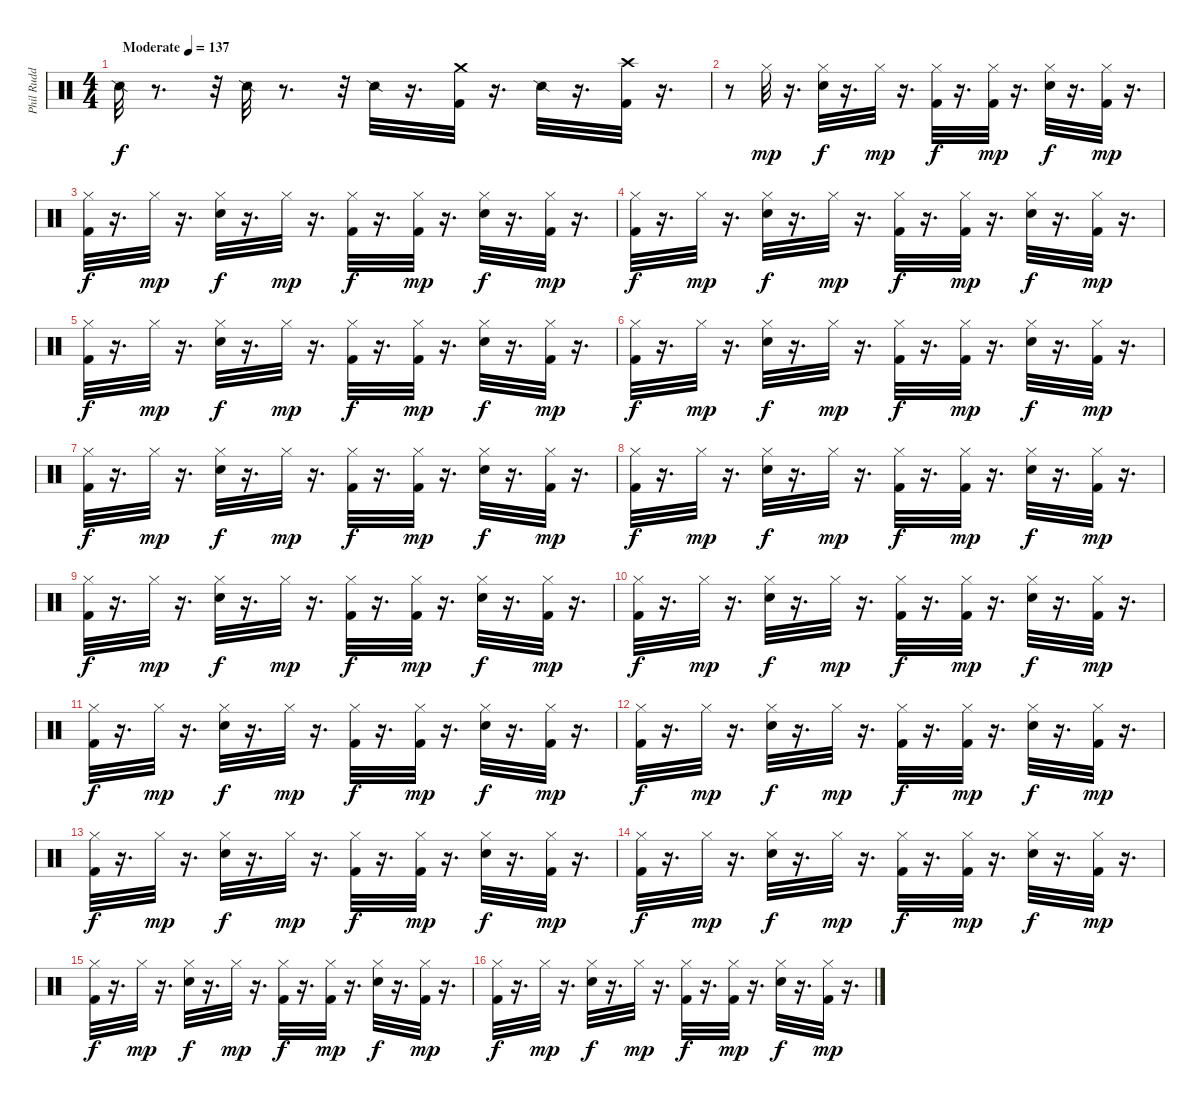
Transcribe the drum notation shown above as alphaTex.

\track ("Phil Rudd" "Phil Rudd") {instrument percussion}
\staff
\articulation defaults
\ts (4 4)
\tempo (137 "Moderate")
\clef neutral
\ks c "Snare (side stick) 2".32{dy f}
r.8{d} r.32 "Snare (side stick) 2".32 r.8{d} r.32 "Snare (side stick) 2".32 r.16{d} ("Crash medium (hit)" "Kick (hit) 2").32 r.16{d} "Snare (side stick) 2".32 r.16{d} ("Crash high (hit)" "Kick (hit) 2").32 r.16{d} |
r.8 "Hi-Hat (closed)".32{dy mp} r.16{d} ("Hi-Hat (closed)" "Electric Snare (hit)").32{dy f} r.16{d} "Hi-Hat (closed)".32{dy mp} r.16{d} ("Hi-Hat (closed)" "Kick (hit) 2").32{dy f} r.16{d} ("Hi-Hat (closed)" "Kick (hit) 2").32{dy mp} r.16{d} ("Hi-Hat (closed)" "Electric Snare (hit)").32{dy f} r.16{d} ("Hi-Hat (closed)" "Kick (hit) 2").32{dy mp} r.16{d} |
("Hi-Hat (closed)" "Kick (hit) 2").32{dy f} r.16{d} "Hi-Hat (closed)".32{dy mp} r.16{d} ("Hi-Hat (closed)" "Electric Snare (hit)").32{dy f} r.16{d} "Hi-Hat (closed)".32{dy mp} r.16{d} ("Hi-Hat (closed)" "Kick (hit) 2").32{dy f} r.16{d} ("Hi-Hat (closed)" "Kick (hit) 2").32{dy mp} r.16{d} ("Hi-Hat (closed)" "Electric Snare (hit)").32{dy f} r.16{d} ("Hi-Hat (closed)" "Kick (hit) 2").32{dy mp} r.16{d} |
("Hi-Hat (closed)" "Kick (hit) 2").32{dy f} r.16{d} "Hi-Hat (closed)".32{dy mp} r.16{d} ("Hi-Hat (closed)" "Electric Snare (hit)").32{dy f} r.16{d} "Hi-Hat (closed)".32{dy mp} r.16{d} ("Hi-Hat (closed)" "Kick (hit) 2").32{dy f} r.16{d} ("Hi-Hat (closed)" "Kick (hit) 2").32{dy mp} r.16{d} ("Hi-Hat (closed)" "Electric Snare (hit)").32{dy f} r.16{d} ("Hi-Hat (closed)" "Kick (hit) 2").32{dy mp} r.16{d} |
("Hi-Hat (closed)" "Kick (hit) 2").32{dy f} r.16{d} "Hi-Hat (closed)".32{dy mp} r.16{d} ("Hi-Hat (closed)" "Electric Snare (hit)").32{dy f} r.16{d} "Hi-Hat (closed)".32{dy mp} r.16{d} ("Hi-Hat (closed)" "Kick (hit) 2").32{dy f} r.16{d} ("Hi-Hat (closed)" "Kick (hit) 2").32{dy mp} r.16{d} ("Hi-Hat (closed)" "Electric Snare (hit)").32{dy f} r.16{d} ("Hi-Hat (closed)" "Kick (hit) 2").32{dy mp} r.16{d} |
("Hi-Hat (closed)" "Kick (hit) 2").32{dy f} r.16{d} "Hi-Hat (closed)".32{dy mp} r.16{d} ("Hi-Hat (closed)" "Electric Snare (hit)").32{dy f} r.16{d} "Hi-Hat (closed)".32{dy mp} r.16{d} ("Hi-Hat (closed)" "Kick (hit) 2").32{dy f} r.16{d} ("Hi-Hat (closed)" "Kick (hit) 2").32{dy mp} r.16{d} ("Hi-Hat (closed)" "Electric Snare (hit)").32{dy f} r.16{d} ("Hi-Hat (closed)" "Kick (hit) 2").32{dy mp} r.16{d} |
("Hi-Hat (closed)" "Kick (hit) 2").32{dy f} r.16{d} "Hi-Hat (closed)".32{dy mp} r.16{d} ("Hi-Hat (closed)" "Electric Snare (hit)").32{dy f} r.16{d} "Hi-Hat (closed)".32{dy mp} r.16{d} ("Hi-Hat (closed)" "Kick (hit) 2").32{dy f} r.16{d} ("Hi-Hat (closed)" "Kick (hit) 2").32{dy mp} r.16{d} ("Hi-Hat (closed)" "Electric Snare (hit)").32{dy f} r.16{d} ("Hi-Hat (closed)" "Kick (hit) 2").32{dy mp} r.16{d} |
("Hi-Hat (closed)" "Kick (hit) 2").32{dy f} r.16{d} "Hi-Hat (closed)".32{dy mp} r.16{d} ("Hi-Hat (closed)" "Electric Snare (hit)").32{dy f} r.16{d} "Hi-Hat (closed)".32{dy mp} r.16{d} ("Hi-Hat (closed)" "Kick (hit) 2").32{dy f} r.16{d} ("Hi-Hat (closed)" "Kick (hit) 2").32{dy mp} r.16{d} ("Hi-Hat (closed)" "Electric Snare (hit)").32{dy f} r.16{d} ("Hi-Hat (closed)" "Kick (hit) 2").32{dy mp} r.16{d} |
("Hi-Hat (closed)" "Kick (hit) 2").32{dy f} r.16{d} "Hi-Hat (closed)".32{dy mp} r.16{d} ("Hi-Hat (closed)" "Electric Snare (hit)").32{dy f} r.16{d} "Hi-Hat (closed)".32{dy mp} r.16{d} ("Hi-Hat (closed)" "Kick (hit) 2").32{dy f} r.16{d} ("Hi-Hat (closed)" "Kick (hit) 2").32{dy mp} r.16{d} ("Hi-Hat (closed)" "Electric Snare (hit)").32{dy f} r.16{d} ("Hi-Hat (closed)" "Kick (hit) 2").32{dy mp} r.16{d} |
("Hi-Hat (closed)" "Kick (hit) 2").32{dy f} r.16{d} "Hi-Hat (closed)".32{dy mp} r.16{d} ("Hi-Hat (closed)" "Electric Snare (hit)").32{dy f} r.16{d} "Hi-Hat (closed)".32{dy mp} r.16{d} ("Hi-Hat (closed)" "Kick (hit) 2").32{dy f} r.16{d} ("Hi-Hat (closed)" "Kick (hit) 2").32{dy mp} r.16{d} ("Hi-Hat (closed)" "Electric Snare (hit)").32{dy f} r.16{d} ("Hi-Hat (closed)" "Kick (hit) 2").32{dy mp} r.16{d} |
("Hi-Hat (closed)" "Kick (hit) 2").32{dy f} r.16{d} "Hi-Hat (closed)".32{dy mp} r.16{d} ("Hi-Hat (closed)" "Electric Snare (hit)").32{dy f} r.16{d} "Hi-Hat (closed)".32{dy mp} r.16{d} ("Hi-Hat (closed)" "Kick (hit) 2").32{dy f} r.16{d} ("Hi-Hat (closed)" "Kick (hit) 2").32{dy mp} r.16{d} ("Hi-Hat (closed)" "Electric Snare (hit)").32{dy f} r.16{d} ("Hi-Hat (closed)" "Kick (hit) 2").32{dy mp} r.16{d} |
("Hi-Hat (closed)" "Kick (hit) 2").32{dy f} r.16{d} "Hi-Hat (closed)".32{dy mp} r.16{d} ("Hi-Hat (closed)" "Electric Snare (hit)").32{dy f} r.16{d} "Hi-Hat (closed)".32{dy mp} r.16{d} ("Hi-Hat (closed)" "Kick (hit) 2").32{dy f} r.16{d} ("Hi-Hat (closed)" "Kick (hit) 2").32{dy mp} r.16{d} ("Hi-Hat (closed)" "Electric Snare (hit)").32{dy f} r.16{d} ("Hi-Hat (closed)" "Kick (hit) 2").32{dy mp} r.16{d} |
("Hi-Hat (closed)" "Kick (hit) 2").32{dy f} r.16{d} "Hi-Hat (closed)".32{dy mp} r.16{d} ("Hi-Hat (closed)" "Electric Snare (hit)").32{dy f} r.16{d} "Hi-Hat (closed)".32{dy mp} r.16{d} ("Hi-Hat (closed)" "Kick (hit) 2").32{dy f} r.16{d} ("Hi-Hat (closed)" "Kick (hit) 2").32{dy mp} r.16{d} ("Hi-Hat (closed)" "Electric Snare (hit)").32{dy f} r.16{d} ("Hi-Hat (closed)" "Kick (hit) 2").32{dy mp} r.16{d} |
("Hi-Hat (closed)" "Kick (hit) 2").32{dy f} r.16{d} "Hi-Hat (closed)".32{dy mp} r.16{d} ("Hi-Hat (closed)" "Electric Snare (hit)").32{dy f} r.16{d} "Hi-Hat (closed)".32{dy mp} r.16{d} ("Hi-Hat (closed)" "Kick (hit) 2").32{dy f} r.16{d} ("Hi-Hat (closed)" "Kick (hit) 2").32{dy mp} r.16{d} ("Hi-Hat (closed)" "Electric Snare (hit)").32{dy f} r.16{d} ("Hi-Hat (closed)" "Kick (hit) 2").32{dy mp} r.16{d} |
("Hi-Hat (closed)" "Kick (hit) 2").32{dy f} r.16{d} "Hi-Hat (closed)".32{dy mp} r.16{d} ("Hi-Hat (closed)" "Electric Snare (hit)").32{dy f} r.16{d} "Hi-Hat (closed)".32{dy mp} r.16{d} ("Hi-Hat (closed)" "Kick (hit) 2").32{dy f} r.16{d} ("Hi-Hat (closed)" "Kick (hit) 2").32{dy mp} r.16{d} ("Hi-Hat (closed)" "Electric Snare (hit)").32{dy f} r.16{d} ("Hi-Hat (closed)" "Kick (hit) 2").32{dy mp} r.16{d} |
("Hi-Hat (closed)" "Kick (hit) 2").32{dy f} r.16{d} "Hi-Hat (closed)".32{dy mp} r.16{d} ("Hi-Hat (closed)" "Electric Snare (hit)").32{dy f} r.16{d} "Hi-Hat (closed)".32{dy mp} r.16{d} ("Hi-Hat (closed)" "Kick (hit) 2").32{dy f} r.16{d} ("Hi-Hat (closed)" "Kick (hit) 2").32{dy mp} r.16{d} ("Hi-Hat (closed)" "Electric Snare (hit)").32{dy f} r.16{d} ("Hi-Hat (closed)" "Kick (hit) 2").32{dy mp} r.16{d}
